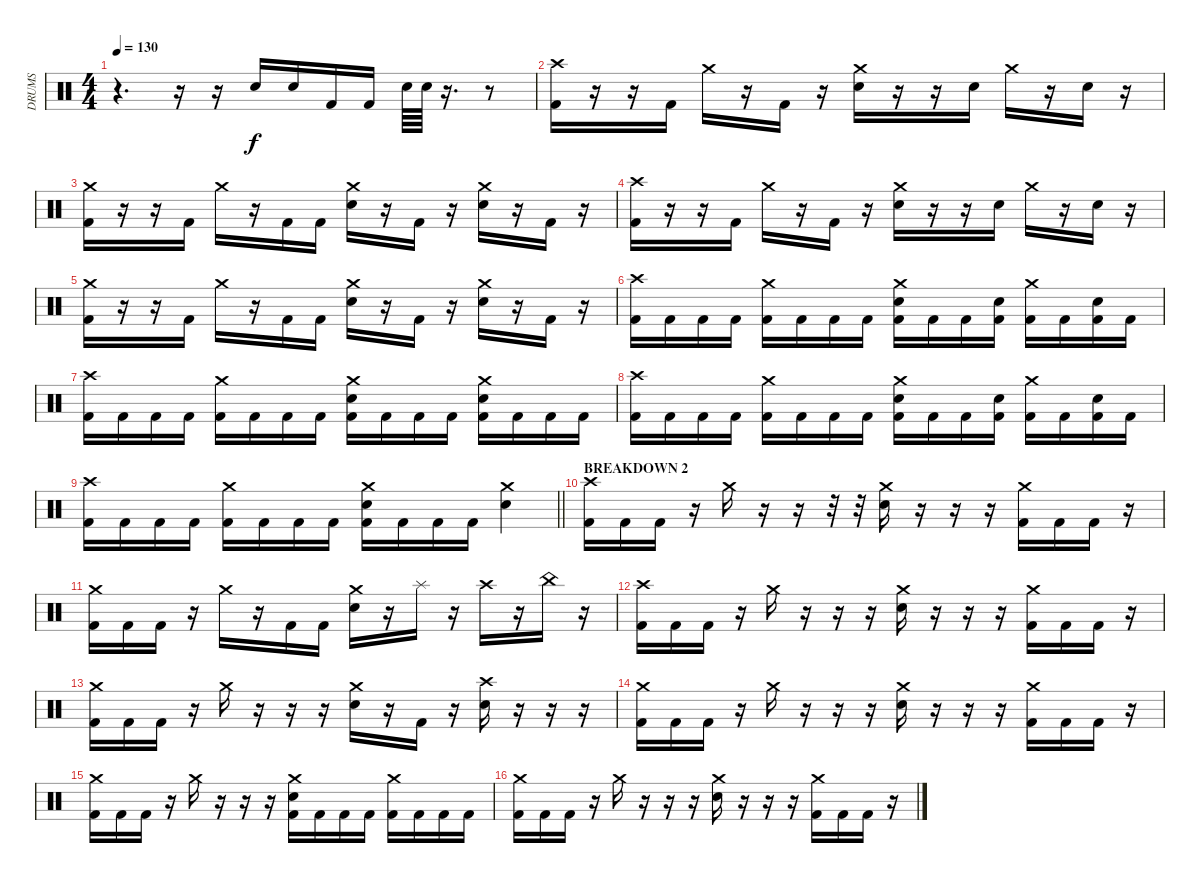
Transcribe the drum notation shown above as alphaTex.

\track ("DRUMS" "DRUMS") {instrument percussion}
\staff {score}
\articulation defaults
\ts (4 4)
\tempo 130
\clef neutral
\ks c
r.4{d dy f} r.16 r.16 "Electric Snare (hit)".16 "Electric Snare (hit)".16 "Kick (hit) 2".16 "Kick (hit) 2".16 "Electric Snare (hit)".64 "Electric Snare (hit)".64 r.16{d} r.8 |
("Crash high (hit)" "Kick (hit) 2").16 r.16 r.16 "Kick (hit) 2".16 "Crash medium (hit)".16 r.16 "Kick (hit) 2".16 r.16 ("Crash medium (hit)" "Electric Snare (hit)").16 r.16 r.16 "Electric Snare (hit)".16 "Crash medium (hit)".16 r.16 "Electric Snare (hit)".16 r.16 |
("Crash medium (hit)" "Kick (hit) 2").16 r.16 r.16 "Kick (hit) 2".16 "Crash medium (hit)".16 r.16 "Kick (hit) 2".16 "Kick (hit) 2".16 ("Crash medium (hit)" "Electric Snare (hit)").16 r.16 "Kick (hit) 2".16 r.16 ("Crash medium (hit)" "Electric Snare (hit)").16 r.16 "Kick (hit) 2".16 r.16 |
("Crash high (hit)" "Kick (hit) 2").16 r.16 r.16 "Kick (hit) 2".16 "Crash medium (hit)".16 r.16 "Kick (hit) 2".16 r.16 ("Crash medium (hit)" "Electric Snare (hit)").16 r.16 r.16 "Electric Snare (hit)".16 "Crash medium (hit)".16 r.16 "Electric Snare (hit)".16 r.16 |
("Crash medium (hit)" "Kick (hit) 2").16 r.16 r.16 "Kick (hit) 2".16 "Crash medium (hit)".16 r.16 "Kick (hit) 2".16 "Kick (hit) 2".16 ("Crash medium (hit)" "Electric Snare (hit)").16 r.16 "Kick (hit) 2".16 r.16 ("Crash medium (hit)" "Electric Snare (hit)").16 r.16 "Kick (hit) 2".16 r.16 |
("Crash high (hit)" "Kick (hit) 2").16 "Kick (hit) 2".16 "Kick (hit) 2".16 "Kick (hit) 2".16 ("Crash medium (hit)" "Kick (hit) 2").16 "Kick (hit) 2".16 "Kick (hit) 2".16 "Kick (hit) 2".16 ("Crash medium (hit)" "Electric Snare (hit)" "Kick (hit) 2").16 "Kick (hit) 2".16 "Kick (hit) 2".16 ("Electric Snare (hit)" "Kick (hit) 2").16 ("Crash medium (hit)" "Kick (hit) 2").16 "Kick (hit) 2".16 ("Electric Snare (hit)" "Kick (hit) 2").16 "Kick (hit) 2".16 |
("Crash high (hit)" "Kick (hit) 2").16 "Kick (hit) 2".16 "Kick (hit) 2".16 "Kick (hit) 2".16 ("Crash medium (hit)" "Kick (hit) 2").16 "Kick (hit) 2".16 "Kick (hit) 2".16 "Kick (hit) 2".16 ("Crash medium (hit)" "Electric Snare (hit)" "Kick (hit) 2").16 "Kick (hit) 2".16 "Kick (hit) 2".16 "Kick (hit) 2".16 ("Crash medium (hit)" "Electric Snare (hit)" "Kick (hit) 2").16 "Kick (hit) 2".16 "Kick (hit) 2".16 "Kick (hit) 2".16 |
("Crash high (hit)" "Kick (hit) 2").16 "Kick (hit) 2".16 "Kick (hit) 2".16 "Kick (hit) 2".16 ("Crash medium (hit)" "Kick (hit) 2").16 "Kick (hit) 2".16 "Kick (hit) 2".16 "Kick (hit) 2".16 ("Crash medium (hit)" "Electric Snare (hit)" "Kick (hit) 2").16 "Kick (hit) 2".16 "Kick (hit) 2".16 ("Electric Snare (hit)" "Kick (hit) 2").16 ("Crash medium (hit)" "Kick (hit) 2").16 "Kick (hit) 2".16 ("Electric Snare (hit)" "Kick (hit) 2").16 "Kick (hit) 2".16 |
\barLineRight lightlight
("Crash high (hit)" "Kick (hit) 2").16 "Kick (hit) 2".16 "Kick (hit) 2".16 "Kick (hit) 2".16 ("Crash medium (hit)" "Kick (hit) 2").16 "Kick (hit) 2".16 "Kick (hit) 2".16 "Kick (hit) 2".16 ("Crash medium (hit)" "Electric Snare (hit)" "Kick (hit) 2").16 "Kick (hit) 2".16 "Kick (hit) 2".16 "Kick (hit) 2".16 ("Crash medium (hit)" "Electric Snare (hit)").4 |
\section ("" "BREAKDOWN 2")
("Crash high (hit)" "Kick (hit) 2").16 "Kick (hit) 2".16 "Kick (hit) 2".16 r.16 "Crash medium (hit)".16 r.16 r.16 r.32 r.32 ("Crash medium (hit)" "Electric Snare (hit)").16 r.16 r.16 r.16 ("Crash medium (hit)" "Kick (hit) 2").16 "Kick (hit) 2".16 "Kick (hit) 2".16 r.16 |
("Crash medium (hit)" "Kick (hit) 2").16 "Kick (hit) 2".16 "Kick (hit) 2".16 r.16 "Crash medium (hit)".16 r.16 "Kick (hit) 2".16 "Kick (hit) 2".16 ("Crash medium (hit)" "Electric Snare (hit)").16 r.16 "Splash (hit)".16 r.16 "Crash high (hit)".16 r.16 "China (hit)".16 r.16 |
("Crash high (hit)" "Kick (hit) 2").16 "Kick (hit) 2".16 "Kick (hit) 2".16 r.16 "Crash medium (hit)".16 r.16 r.16 r.16 ("Crash medium (hit)" "Electric Snare (hit)").16 r.16 r.16 r.16 ("Crash medium (hit)" "Kick (hit) 2").16 "Kick (hit) 2".16 "Kick (hit) 2".16 r.16 |
("Crash medium (hit)" "Kick (hit) 2").16 "Kick (hit) 2".16 "Kick (hit) 2".16 r.16 "Crash medium (hit)".16 r.16 r.16 r.16 ("Crash medium (hit)" "Electric Snare (hit)").16 r.16 "Kick (hit) 2".16 r.16 ("Crash high (hit)" "Electric Snare (hit)").16 r.16 r.16 r.16 |
("Crash medium (hit)" "Kick (hit) 2").16 "Kick (hit) 2".16 "Kick (hit) 2".16 r.16 "Crash medium (hit)".16 r.16 r.16 r.16 ("Crash medium (hit)" "Electric Snare (hit)").16 r.16 r.16 r.16 ("Crash medium (hit)" "Kick (hit) 2").16 "Kick (hit) 2".16 "Kick (hit) 2".16 r.16 |
("Crash medium (hit)" "Kick (hit) 2").16 "Kick (hit) 2".16 "Kick (hit) 2".16 r.16 "Crash medium (hit)".16 r.16 r.16 r.16 ("Crash medium (hit)" "Electric Snare (hit)" "Kick (hit) 2").16 "Kick (hit) 2".16 "Kick (hit) 2".16 "Kick (hit) 2".16 ("Crash medium (hit)" "Kick (hit) 2").16 "Kick (hit) 2".16 "Kick (hit) 2".16 "Kick (hit) 2".16 |
("Crash medium (hit)" "Kick (hit) 2").16 "Kick (hit) 2".16 "Kick (hit) 2".16 r.16 "Crash medium (hit)".16 r.16 r.16 r.16 ("Crash medium (hit)" "Electric Snare (hit)").16 r.16 r.16 r.16 ("Crash medium (hit)" "Kick (hit) 2").16 "Kick (hit) 2".16 "Kick (hit) 2".16 r.16
